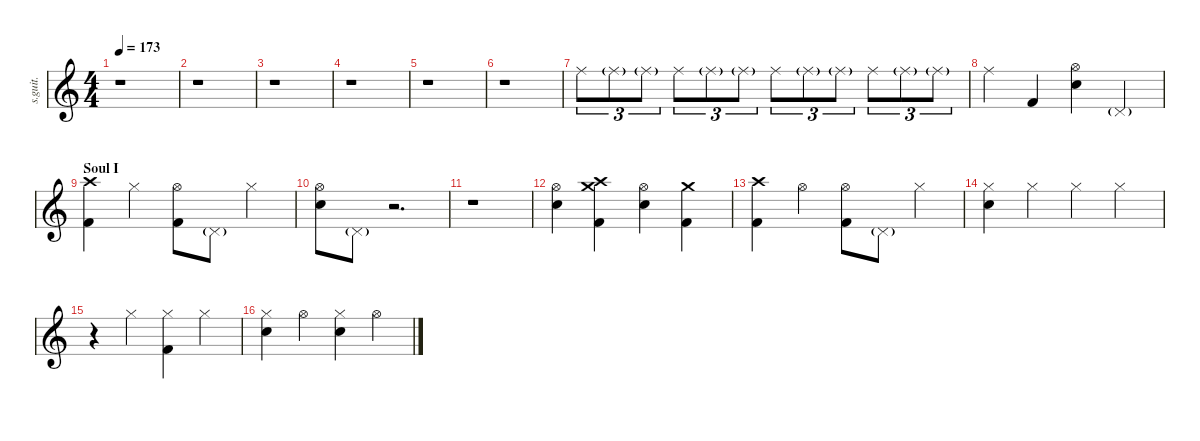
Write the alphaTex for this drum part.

\defaultSystemsLayout 4
\hideDynamics
\bracketExtendMode nobrackets
\track ("II" "s.guit.") {instrument percussion}
\staff {score}
\articulation defaults
\ts (4 4)
\tempo 173
\clef g2
\ks c
r.1{dy pp} |
r.1 |
r.1 |
r.1 |
r.1 |
r.1 |
"Ride (middle)".8{tu (3 2) lyrics (0 "") lyrics (1 "") lyrics (2 "") lyrics (3 "") lyrics (4 "") dy mf} "Ride (middle)"{g}.8{tu (3 2) lyrics (0 "") lyrics (1 "") lyrics (2 "") lyrics (3 "") lyrics (4 "")} "Ride (middle)"{g}.8{tu (3 2) lyrics (0 "") lyrics (1 "") lyrics (2 "") lyrics (3 "") lyrics (4 "")} "Ride (middle)".8{tu (3 2) lyrics (0 "") lyrics (1 "") lyrics (2 "") lyrics (3 "") lyrics (4 "")} "Ride (middle)"{g}.8{tu (3 2) lyrics (0 "") lyrics (1 "") lyrics (2 "") lyrics (3 "") lyrics (4 "")} "Ride (middle)"{g}.8{tu (3 2) lyrics (0 "") lyrics (1 "") lyrics (2 "") lyrics (3 "") lyrics (4 "")} "Ride (middle)".8{tu (3 2) lyrics (0 "") lyrics (1 "") lyrics (2 "") lyrics (3 "") lyrics (4 "")} "Ride (middle)"{g}.8{tu (3 2) lyrics (0 "") lyrics (1 "") lyrics (2 "") lyrics (3 "") lyrics (4 "")} "Ride (middle)"{g}.8{tu (3 2) lyrics (0 "") lyrics (1 "") lyrics (2 "") lyrics (3 "") lyrics (4 "")} "Ride (middle)".8{tu (3 2) lyrics (0 "") lyrics (1 "") lyrics (2 "") lyrics (3 "") lyrics (4 "")} "Ride (middle)"{g}.8{tu (3 2) lyrics (0 "") lyrics (1 "") lyrics (2 "") lyrics (3 "") lyrics (4 "")} "Ride (middle)"{g}.8{tu (3 2) lyrics (0 "") lyrics (1 "") lyrics (2 "") lyrics (3 "") lyrics (4 "")} |
"Ride (middle)".4{lyrics (0 "") lyrics (1 "") lyrics (2 "") lyrics (3 "") lyrics (4 "")} "Kick (hit) 2".4{lyrics (0 "") lyrics (1 "") lyrics (2 "") lyrics (3 "") lyrics (4 "")} ("Snare (hit) 2" "Hi-Hat (open)").4{lyrics (0 "") lyrics (1 "") lyrics (2 "") lyrics (3 "") lyrics (4 "")} "Pedal Hi-Hat (hit)"{g}.4{lyrics (0 "") lyrics (1 "") lyrics (2 "") lyrics (3 "") lyrics (4 "") dy pp} |
\section ("" "Soul I")
("Kick (hit) 2" "Crash high (hit)").4{lyrics (0 "") lyrics (1 "") lyrics (2 "") lyrics (3 "") lyrics (4 "") dy mf} "Hi-Hat (closed)".4{lyrics (0 "") lyrics (1 "") lyrics (2 "") lyrics (3 "") lyrics (4 "")} ("Hi-Hat (open)" "Kick (hit) 2").8{lyrics (0 "") lyrics (1 "") lyrics (2 "") lyrics (3 "") lyrics (4 "")} "Pedal Hi-Hat (hit)"{g}.8{lyrics (0 "") lyrics (1 "") lyrics (2 "") lyrics (3 "") lyrics (4 "") dy pp} "Hi-Hat (closed)".4{lyrics (0 "") lyrics (1 "") lyrics (2 "") lyrics (3 "") lyrics (4 "") dy mf} |
("Snare (hit) 2" "Hi-Hat (open)").8{lyrics (0 "") lyrics (1 "") lyrics (2 "") lyrics (3 "") lyrics (4 "")} "Pedal Hi-Hat (hit)"{g}.8{lyrics (0 "") lyrics (1 "") lyrics (2 "") lyrics (3 "") lyrics (4 "") dy pp} r.2{d} |
r.1 |
("Snare (hit) 2" "Hi-Hat (open)").4{lyrics (0 "") lyrics (1 "") lyrics (2 "") lyrics (3 "") lyrics (4 "") dy mf} ("Kick (hit) 2" "Crash medium (hit)" "Crash high (hit)").4{lyrics (0 "") lyrics (1 "") lyrics (2 "") lyrics (3 "") lyrics (4 "")} ("Snare (hit) 2" "Hi-Hat (open)").4{lyrics (0 "") lyrics (1 "") lyrics (2 "") lyrics (3 "") lyrics (4 "")} ("Kick (hit) 2" "Crash medium (hit)").4{lyrics (0 "") lyrics (1 "") lyrics (2 "") lyrics (3 "") lyrics (4 "")} |
("Kick (hit) 2" "Crash high (hit)").4{lyrics (0 "") lyrics (1 "") lyrics (2 "") lyrics (3 "") lyrics (4 "")} "Hi-Hat (open)".4{lyrics (0 "") lyrics (1 "") lyrics (2 "") lyrics (3 "") lyrics (4 "")} ("Hi-Hat (open)" "Kick (hit) 2").8{lyrics (0 "") lyrics (1 "") lyrics (2 "") lyrics (3 "") lyrics (4 "")} "Pedal Hi-Hat (hit)"{g}.8{lyrics (0 "") lyrics (1 "") lyrics (2 "") lyrics (3 "") lyrics (4 "") dy pp} "Hi-Hat (closed)".4{lyrics (0 "") lyrics (1 "") lyrics (2 "") lyrics (3 "") lyrics (4 "") dy mf} |
("Hi-Hat (closed)" "Snare (hit) 2").4{lyrics (0 "") lyrics (1 "") lyrics (2 "") lyrics (3 "") lyrics (4 "")} "Hi-Hat (closed)".4{lyrics (0 "") lyrics (1 "") lyrics (2 "") lyrics (3 "") lyrics (4 "")} "Hi-Hat (closed)".4{lyrics (0 "") lyrics (1 "") lyrics (2 "") lyrics (3 "") lyrics (4 "")} "Hi-Hat (closed)".4{lyrics (0 "") lyrics (1 "") lyrics (2 "") lyrics (3 "") lyrics (4 "")} |
r.4 "Hi-Hat (closed)".4{lyrics (0 "") lyrics (1 "") lyrics (2 "") lyrics (3 "") lyrics (4 "")} ("Kick (hit) 2" "Hi-Hat (closed)").4{lyrics (0 "") lyrics (1 "") lyrics (2 "") lyrics (3 "") lyrics (4 "")} "Hi-Hat (closed)".4{lyrics (0 "") lyrics (1 "") lyrics (2 "") lyrics (3 "") lyrics (4 "")} |
("Snare (hit) 2" "Hi-Hat (closed)").4{lyrics (0 "") lyrics (1 "") lyrics (2 "") lyrics (3 "") lyrics (4 "")} "Hi-Hat (open)".4{lyrics (0 "") lyrics (1 "") lyrics (2 "") lyrics (3 "") lyrics (4 "")} ("Hi-Hat (closed)" "Snare (hit) 2").4{lyrics (0 "") lyrics (1 "") lyrics (2 "") lyrics (3 "") lyrics (4 "")} "Hi-Hat (open)".4{lyrics (0 "") lyrics (1 "") lyrics (2 "") lyrics (3 "") lyrics (4 "")}
